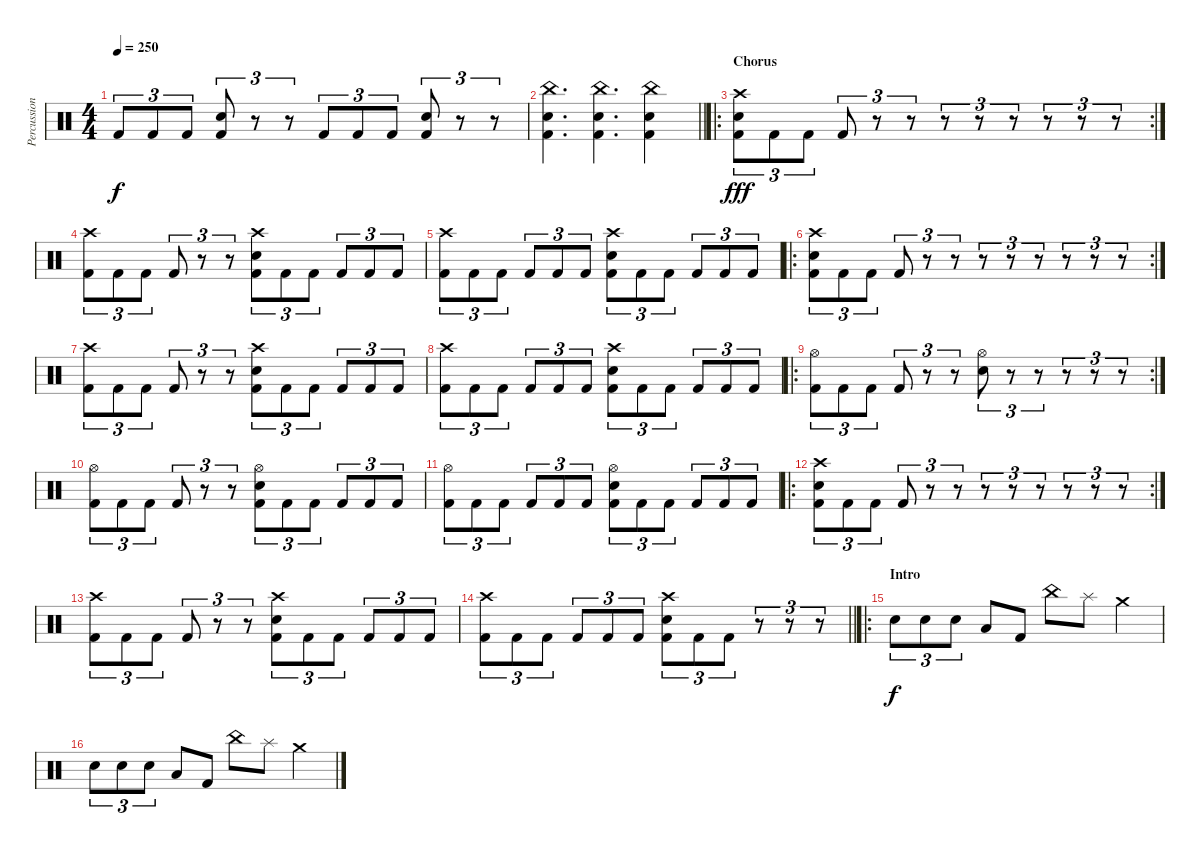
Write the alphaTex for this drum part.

\track ("Percussion" "Percussion") {instrument percussion}
\staff {score}
\articulation defaults
\ts (4 4)
\tempo 250
\clef neutral
\ks c "Kick (hit) 2".8{tu (3 2) dy f} "Kick (hit) 2".8{tu (3 2)} "Kick (hit) 2".8{tu (3 2)}
("Electric Snare (hit)" "Kick (hit) 2").8{tu (3 2)} r.8{tu (3 2)} r.8{tu (3 2)} "Kick (hit) 2".8{tu (3 2)} "Kick (hit) 2".8{tu (3 2)} "Kick (hit) 2".8{tu (3 2)} ("Electric Snare (hit)" "Kick (hit) 2").8{tu (3 2)} r.8{tu (3 2)} r.8{tu (3 2)} |
\barLineRight lightlight
("China (hit)" "Electric Snare (hit)" "Kick (hit) 2").4{d} ("China (hit)" "Electric Snare (hit)" "Kick (hit) 2").4{d} ("China (hit)" "Electric Snare (hit)" "Kick (hit) 2").4 |
\ro
\rc 2
\section ("" "Chorus")
("Crash high (hit)" "Electric Snare (hit)" "Kick (hit) 2").8{tu (3 2) dy fff} "Kick (hit) 2".8{tu (3 2)} "Kick (hit) 2".8{tu (3 2)} "Kick (hit) 2".8{tu (3 2)} r.8{tu (3 2)} r.8{tu (3 2)} r.8{tu (3 2)} r.8{tu (3 2)} r.8{tu (3 2)} r.8{tu (3 2)} r.8{tu (3 2)} r.8{tu (3 2)} |
("Crash high (hit)" "Kick (hit) 2").8{tu (3 2)} "Kick (hit) 2".8{tu (3 2)} "Kick (hit) 2".8{tu (3 2)} "Kick (hit) 2".8{tu (3 2)} r.8{tu (3 2)} r.8{tu (3 2)} ("Crash high (hit)" "Electric Snare (hit)" "Kick (hit) 2").8{tu (3 2)} "Kick (hit) 2".8{tu (3 2)} "Kick (hit) 2".8{tu (3 2)} "Kick (hit) 2".8{tu (3 2)} "Kick (hit) 2".8{tu (3 2)} "Kick (hit) 2".8{tu (3 2)} |
("Crash high (hit)" "Kick (hit) 2").8{tu (3 2)} "Kick (hit) 2".8{tu (3 2)} "Kick (hit) 2".8{tu (3 2)} "Kick (hit) 2".8{tu (3 2)} "Kick (hit) 2".8{tu (3 2)} "Kick (hit) 2".8{tu (3 2)} ("Crash high (hit)" "Electric Snare (hit)" "Kick (hit) 2").8{tu (3 2)} "Kick (hit) 2".8{tu (3 2)} "Kick (hit) 2".8{tu (3 2)} "Kick (hit) 2".8{tu (3 2)} "Kick (hit) 2".8{tu (3 2)} "Kick (hit) 2".8{tu (3 2)} |
\ro
\rc 2
("Crash high (hit)" "Electric Snare (hit)" "Kick (hit) 2").8{tu (3 2)} "Kick (hit) 2".8{tu (3 2)} "Kick (hit) 2".8{tu (3 2)} "Kick (hit) 2".8{tu (3 2)} r.8{tu (3 2)} r.8{tu (3 2)} r.8{tu (3 2)} r.8{tu (3 2)} r.8{tu (3 2)} r.8{tu (3 2)} r.8{tu (3 2)} r.8{tu (3 2)} |
("Crash high (hit)" "Kick (hit) 2").8{tu (3 2)} "Kick (hit) 2".8{tu (3 2)} "Kick (hit) 2".8{tu (3 2)} "Kick (hit) 2".8{tu (3 2)} r.8{tu (3 2)} r.8{tu (3 2)} ("Crash high (hit)" "Electric Snare (hit)" "Kick (hit) 2").8{tu (3 2)} "Kick (hit) 2".8{tu (3 2)} "Kick (hit) 2".8{tu (3 2)} "Kick (hit) 2".8{tu (3 2)} "Kick (hit) 2".8{tu (3 2)} "Kick (hit) 2".8{tu (3 2)} |
("Crash high (hit)" "Kick (hit) 2").8{tu (3 2)} "Kick (hit) 2".8{tu (3 2)} "Kick (hit) 2".8{tu (3 2)} "Kick (hit) 2".8{tu (3 2)} "Kick (hit) 2".8{tu (3 2)} "Kick (hit) 2".8{tu (3 2)} ("Crash high (hit)" "Electric Snare (hit)" "Kick (hit) 2").8{tu (3 2)} "Kick (hit) 2".8{tu (3 2)} "Kick (hit) 2".8{tu (3 2)} "Kick (hit) 2".8{tu (3 2)} "Kick (hit) 2".8{tu (3 2)} "Kick (hit) 2".8{tu (3 2)} |
\ro
\rc 2
("Hi-Hat (open)" "Kick (hit) 2").8{tu (3 2)} "Kick (hit) 2".8{tu (3 2)} "Kick (hit) 2".8{tu (3 2)} "Kick (hit) 2".8{tu (3 2)} r.8{tu (3 2)} r.8{tu (3 2)} ("Hi-Hat (open)" "Electric Snare (hit)").8{tu (3 2)} r.8{tu (3 2)} r.8{tu (3 2)} r.8{tu (3 2)} r.8{tu (3 2)} r.8{tu (3 2)} |
("Hi-Hat (open)" "Kick (hit) 2").8{tu (3 2)} "Kick (hit) 2".8{tu (3 2)} "Kick (hit) 2".8{tu (3 2)} "Kick (hit) 2".8{tu (3 2)} r.8{tu (3 2)} r.8{tu (3 2)} ("Hi-Hat (open)" "Electric Snare (hit)" "Kick (hit) 2").8{tu (3 2)} "Kick (hit) 2".8{tu (3 2)} "Kick (hit) 2".8{tu (3 2)} "Kick (hit) 2".8{tu (3 2)} "Kick (hit) 2".8{tu (3 2)} "Kick (hit) 2".8{tu (3 2)} |
("Hi-Hat (open)" "Kick (hit) 2").8{tu (3 2)} "Kick (hit) 2".8{tu (3 2)} "Kick (hit) 2".8{tu (3 2)} "Kick (hit) 2".8{tu (3 2)} "Kick (hit) 2".8{tu (3 2)} "Kick (hit) 2".8{tu (3 2)} ("Hi-Hat (open)" "Electric Snare (hit)" "Kick (hit) 2").8{tu (3 2)} "Kick (hit) 2".8{tu (3 2)} "Kick (hit) 2".8{tu (3 2)} "Kick (hit) 2".8{tu (3 2)} "Kick (hit) 2".8{tu (3 2)} "Kick (hit) 2".8{tu (3 2)} |
\ro
\rc 2
("Crash high (hit)" "Electric Snare (hit)" "Kick (hit) 2").8{tu (3 2)} "Kick (hit) 2".8{tu (3 2)} "Kick (hit) 2".8{tu (3 2)} "Kick (hit) 2".8{tu (3 2)} r.8{tu (3 2)} r.8{tu (3 2)} r.8{tu (3 2)} r.8{tu (3 2)} r.8{tu (3 2)} r.8{tu (3 2)} r.8{tu (3 2)} r.8{tu (3 2)} |
("Crash high (hit)" "Kick (hit) 2").8{tu (3 2)} "Kick (hit) 2".8{tu (3 2)} "Kick (hit) 2".8{tu (3 2)} "Kick (hit) 2".8{tu (3 2)} r.8{tu (3 2)} r.8{tu (3 2)} ("Crash high (hit)" "Electric Snare (hit)" "Kick (hit) 2").8{tu (3 2)} "Kick (hit) 2".8{tu (3 2)} "Kick (hit) 2".8{tu (3 2)} "Kick (hit) 2".8{tu (3 2)} "Kick (hit) 2".8{tu (3 2)} "Kick (hit) 2".8{tu (3 2)} |
\barLineRight lightlight
("Crash high (hit)" "Kick (hit) 2").8{tu (3 2)} "Kick (hit) 2".8{tu (3 2)} "Kick (hit) 2".8{tu (3 2)} "Kick (hit) 2".8{tu (3 2)} "Kick (hit) 2".8{tu (3 2)} "Kick (hit) 2".8{tu (3 2)} ("Crash high (hit)" "Electric Snare (hit)" "Kick (hit) 2").8{tu (3 2)} "Kick (hit) 2".8{tu (3 2)} "Kick (hit) 2".8{tu (3 2)} r.8{tu (3 2)} r.8{tu (3 2)} r.8{tu (3 2)} |
\ro
\section ("" "Intro")
"Electric Snare (hit)".8{tu (3 2) dy f} "Electric Snare (hit)".8{tu (3 2)} "Electric Snare (hit)".8{tu (3 2)} "Low Tom (hit)".8 "Kick (hit) 2".8 "China (hit)".8 "Splash (hit)".8 "Crash medium (hit)".4 |
"Electric Snare (hit)".8{tu (3 2)} "Electric Snare (hit)".8{tu (3 2)} "Electric Snare (hit)".8{tu (3 2)} "Low Tom (hit)".8 "Kick (hit) 2".8 "China (hit)".8 "Splash (hit)".8 "Crash medium (hit)".4
